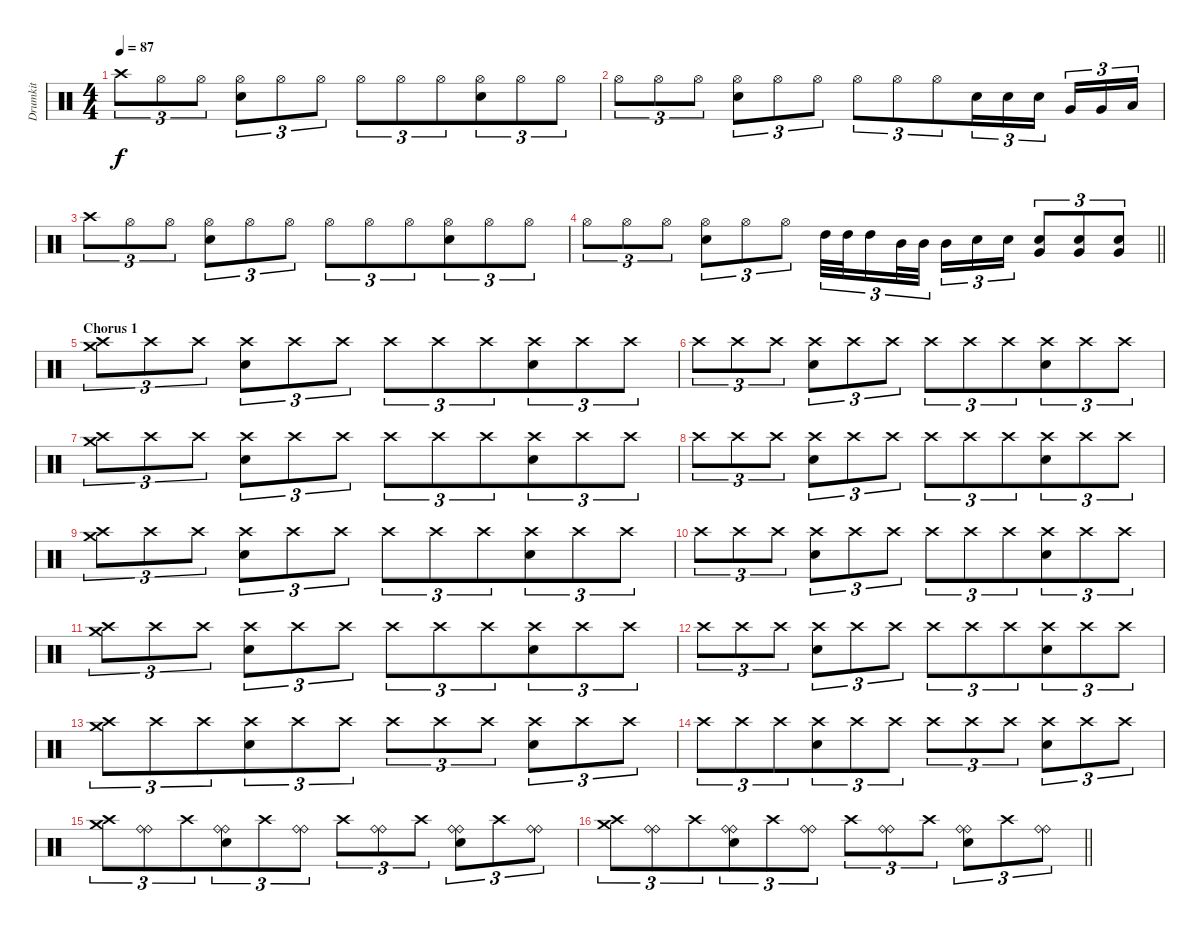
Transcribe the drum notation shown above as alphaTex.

\track ("Drumkit" "Drumkit") {instrument percussion bank 158}
\staff {score}
\articulation defaults
\ts (4 4)
\tempo 87
\clef neutral
\ks c "Crash high (hit)".8{tu (3 2) dy f} "Hi-Hat (open)".8{tu (3 2) beam merge} "Hi-Hat (open)".8{tu (3 2)}
("Hi-Hat (open)" "Electric Snare (hit)").8{tu (3 2) beam merge} "Hi-Hat (open)".8{tu (3 2) beam merge} "Hi-Hat (open)".8{tu (3 2)} "Hi-Hat (open)".8{tu (3 2) beam merge} "Hi-Hat (open)".8{tu (3 2)} "Hi-Hat (open)".8{tu (3 2) beam merge} ("Hi-Hat (open)" "Electric Snare (hit)").8{tu (3 2) beam merge} "Hi-Hat (open)".8{tu (3 2) beam merge} "Hi-Hat (open)".8{tu (3 2)} |
"Hi-Hat (open)".8{tu (3 2)} "Hi-Hat (open)".8{tu (3 2) beam merge} "Hi-Hat (open)".8{tu (3 2)} ("Hi-Hat (open)" "Electric Snare (hit)").8{tu (3 2) beam merge} "Hi-Hat (open)".8{tu (3 2) beam merge} "Hi-Hat (open)".8{tu (3 2)} "Hi-Hat (open)".8{tu (3 2) beam merge} "Hi-Hat (open)".8{tu (3 2)} "Hi-Hat (open)".8{tu (3 2) beam merge} "Electric Snare (hit)".16{tu (3 2) beam merge} "Electric Snare (hit)".16{tu (3 2) beam merge} "Electric Snare (hit)".16{tu (3 2) beam splitsecondary} "Very Low Tom (hit)".16{tu (3 2) beam merge} "Very Low Tom (hit)".16{tu (3 2)} "Low Floor Tom (hit)".16{tu (3 2)} |
"Crash high (hit)".8{tu (3 2)} "Hi-Hat (open)".8{tu (3 2) beam merge} "Hi-Hat (open)".8{tu (3 2)} ("Hi-Hat (open)" "Electric Snare (hit)").8{tu (3 2) beam merge} "Hi-Hat (open)".8{tu (3 2) beam merge} "Hi-Hat (open)".8{tu (3 2)} "Hi-Hat (open)".8{tu (3 2) beam merge} "Hi-Hat (open)".8{tu (3 2)} "Hi-Hat (open)".8{tu (3 2) beam merge} ("Hi-Hat (open)" "Electric Snare (hit)").8{tu (3 2) beam merge} "Hi-Hat (open)".8{tu (3 2) beam merge} "Hi-Hat (open)".8{tu (3 2)} |
\barLineRight lightlight "Hi-Hat (open)".8{tu (3 2)} "Hi-Hat (open)".8{tu (3 2) beam merge} "Hi-Hat (open)".8{tu (3 2)}
("Hi-Hat (open)" "Electric Snare (hit)").8{tu (3 2) beam merge} "Hi-Hat (open)".8{tu (3 2) beam merge} "Hi-Hat (open)".8{tu (3 2)} "High Tom (hit)".32{tu (3 2) beam merge} "High Tom (hit)".32{tu (3 2)} "High Tom (hit)".16{tu (3 2) beam merge} "Mid Tom (hit)".32{tu (3 2) beam merge} "Mid Tom (hit)".32{tu (3 2) beam splitsecondary} "Mid Tom (hit)".16{tu (3 2)} "Electric Snare (hit)".16{tu (3 2) beam merge} "Electric Snare (hit)".16{tu (3 2)} ("Very Low Tom (hit)" "Electric Snare (hit)").8{tu (3 2) beam merge} ("Very Low Tom (hit)" "Electric Snare (hit)").8{tu (3 2)} ("Very Low Tom (hit)" "Electric Snare (hit)").8{tu (3 2)} |
\section ("" "Chorus 1")
("Crash medium (hit)" "Crash high (hit)").8{tu (3 2)} "Crash high (hit)".8{tu (3 2)} "Crash high (hit)".8{tu (3 2)} ("Crash high (hit)" "Electric Snare (hit)").8{tu (3 2)} "Crash high (hit)".8{tu (3 2) beam merge} "Crash high (hit)".8{tu (3 2)} "Crash high (hit)".8{tu (3 2)} "Crash high (hit)".8{tu (3 2)} "Crash high (hit)".8{tu (3 2) beam merge} ("Crash high (hit)" "Electric Snare (hit)").8{tu (3 2)} "Crash high (hit)".8{tu (3 2) beam merge} "Crash high (hit)".8{tu (3 2)} |
"Crash high (hit)".8{tu (3 2)} "Crash high (hit)".8{tu (3 2)} "Crash high (hit)".8{tu (3 2)} ("Crash high (hit)" "Electric Snare (hit)").8{tu (3 2)} "Crash high (hit)".8{tu (3 2) beam merge} "Crash high (hit)".8{tu (3 2)} "Crash high (hit)".8{tu (3 2)} "Crash high (hit)".8{tu (3 2)} "Crash high (hit)".8{tu (3 2) beam merge} ("Crash high (hit)" "Electric Snare (hit)").8{tu (3 2)} "Crash high (hit)".8{tu (3 2) beam merge} "Crash high (hit)".8{tu (3 2)} |
("Crash medium (hit)" "Crash high (hit)").8{tu (3 2)} "Crash high (hit)".8{tu (3 2)} "Crash high (hit)".8{tu (3 2)} ("Crash high (hit)" "Electric Snare (hit)").8{tu (3 2)} "Crash high (hit)".8{tu (3 2) beam merge} "Crash high (hit)".8{tu (3 2)} "Crash high (hit)".8{tu (3 2)} "Crash high (hit)".8{tu (3 2)} "Crash high (hit)".8{tu (3 2) beam merge} ("Crash high (hit)" "Electric Snare (hit)").8{tu (3 2)} "Crash high (hit)".8{tu (3 2) beam merge} "Crash high (hit)".8{tu (3 2)} |
"Crash high (hit)".8{tu (3 2)} "Crash high (hit)".8{tu (3 2)} "Crash high (hit)".8{tu (3 2)} ("Crash high (hit)" "Electric Snare (hit)").8{tu (3 2)} "Crash high (hit)".8{tu (3 2) beam merge} "Crash high (hit)".8{tu (3 2)} "Crash high (hit)".8{tu (3 2)} "Crash high (hit)".8{tu (3 2)} "Crash high (hit)".8{tu (3 2) beam merge} ("Crash high (hit)" "Electric Snare (hit)").8{tu (3 2)} "Crash high (hit)".8{tu (3 2) beam merge} "Crash high (hit)".8{tu (3 2)} |
("Crash medium (hit)" "Crash high (hit)").8{tu (3 2)} "Crash high (hit)".8{tu (3 2)} "Crash high (hit)".8{tu (3 2)} ("Crash high (hit)" "Electric Snare (hit)").8{tu (3 2)} "Crash high (hit)".8{tu (3 2) beam merge} "Crash high (hit)".8{tu (3 2)} "Crash high (hit)".8{tu (3 2)} "Crash high (hit)".8{tu (3 2)} "Crash high (hit)".8{tu (3 2) beam merge} ("Crash high (hit)" "Electric Snare (hit)").8{tu (3 2)} "Crash high (hit)".8{tu (3 2) beam merge} "Crash high (hit)".8{tu (3 2)} |
"Crash high (hit)".8{tu (3 2)} "Crash high (hit)".8{tu (3 2)} "Crash high (hit)".8{tu (3 2)} ("Crash high (hit)" "Electric Snare (hit)").8{tu (3 2)} "Crash high (hit)".8{tu (3 2) beam merge} "Crash high (hit)".8{tu (3 2)} "Crash high (hit)".8{tu (3 2)} "Crash high (hit)".8{tu (3 2)} "Crash high (hit)".8{tu (3 2) beam merge} ("Crash high (hit)" "Electric Snare (hit)").8{tu (3 2)} "Crash high (hit)".8{tu (3 2) beam merge} "Crash high (hit)".8{tu (3 2)} |
("Crash medium (hit)" "Crash high (hit)").8{tu (3 2)} "Crash high (hit)".8{tu (3 2)} "Crash high (hit)".8{tu (3 2)} ("Crash high (hit)" "Electric Snare (hit)").8{tu (3 2)} "Crash high (hit)".8{tu (3 2) beam merge} "Crash high (hit)".8{tu (3 2)} "Crash high (hit)".8{tu (3 2)} "Crash high (hit)".8{tu (3 2)} "Crash high (hit)".8{tu (3 2) beam merge} ("Crash high (hit)" "Electric Snare (hit)").8{tu (3 2)} "Crash high (hit)".8{tu (3 2) beam merge} "Crash high (hit)".8{tu (3 2)} |
"Crash high (hit)".8{tu (3 2)} "Crash high (hit)".8{tu (3 2)} "Crash high (hit)".8{tu (3 2)} ("Crash high (hit)" "Electric Snare (hit)").8{tu (3 2)} "Crash high (hit)".8{tu (3 2) beam merge} "Crash high (hit)".8{tu (3 2)} "Crash high (hit)".8{tu (3 2)} "Crash high (hit)".8{tu (3 2)} "Crash high (hit)".8{tu (3 2) beam merge} ("Crash high (hit)" "Electric Snare (hit)").8{tu (3 2)} "Crash high (hit)".8{tu (3 2) beam merge} "Crash high (hit)".8{tu (3 2)} |
("Crash medium (hit)" "Crash high (hit)").8{tu (3 2) beam merge} "Crash high (hit)".8{tu (3 2) beam merge} "Crash high (hit)".8{tu (3 2) beam merge} ("Crash high (hit)" "Electric Snare (hit)").8{tu (3 2)} "Crash high (hit)".8{tu (3 2)} "Crash high (hit)".8{tu (3 2)} "Crash high (hit)".8{tu (3 2) beam merge} "Crash high (hit)".8{tu (3 2) beam merge} "Crash high (hit)".8{tu (3 2)} ("Crash high (hit)" "Electric Snare (hit)").8{tu (3 2)} "Crash high (hit)".8{tu (3 2) beam merge} "Crash high (hit)".8{tu (3 2)} |
"Crash high (hit)".8{tu (3 2) beam merge} "Crash high (hit)".8{tu (3 2) beam merge} "Crash high (hit)".8{tu (3 2) beam merge} ("Crash high (hit)" "Electric Snare (hit)").8{tu (3 2)} "Crash high (hit)".8{tu (3 2)} "Crash high (hit)".8{tu (3 2)} "Crash high (hit)".8{tu (3 2) beam merge} "Crash high (hit)".8{tu (3 2) beam merge} "Crash high (hit)".8{tu (3 2)} ("Crash high (hit)" "Electric Snare (hit)").8{tu (3 2)} "Crash high (hit)".8{tu (3 2) beam merge} "Crash high (hit)".8{tu (3 2)} |
("Crash medium (hit)" "Crash high (hit)").8{tu (3 2) beam merge} ("Ride (bell)" "Ride (bell)").8{tu (3 2) beam merge} "Crash high (hit)".8{tu (3 2) beam merge} ("Ride (bell)" "Ride (bell)" "Electric Snare (hit)").8{tu (3 2)} "Crash high (hit)".8{tu (3 2)} ("Ride (bell)" "Ride (bell)").8{tu (3 2)} "Crash high (hit)".8{tu (3 2) beam merge} ("Ride (bell)" "Ride (bell)").8{tu (3 2) beam merge} "Crash high (hit)".8{tu (3 2)} ("Ride (bell)" "Ride (bell)" "Electric Snare (hit)").8{tu (3 2)} "Crash high (hit)".8{tu (3 2) beam merge} ("Ride (bell)" "Ride (bell)").8{tu (3 2)} |
\barLineRight lightlight
("Crash medium (hit)" "Crash high (hit)").8{tu (3 2) beam merge} ("Ride (bell)" "Ride (bell)").8{tu (3 2) beam merge} "Crash high (hit)".8{tu (3 2) beam merge} ("Ride (bell)" "Ride (bell)" "Electric Snare (hit)").8{tu (3 2)} "Crash high (hit)".8{tu (3 2)} ("Ride (bell)" "Ride (bell)").8{tu (3 2)} "Crash high (hit)".8{tu (3 2) beam merge} ("Ride (bell)" "Ride (bell)").8{tu (3 2) beam merge} "Crash high (hit)".8{tu (3 2)} ("Ride (bell)" "Ride (bell)" "Electric Snare (hit)").8{tu (3 2)} "Crash high (hit)".8{tu (3 2) beam merge} ("Ride (bell)" "Ride (bell)").8{tu (3 2)}
